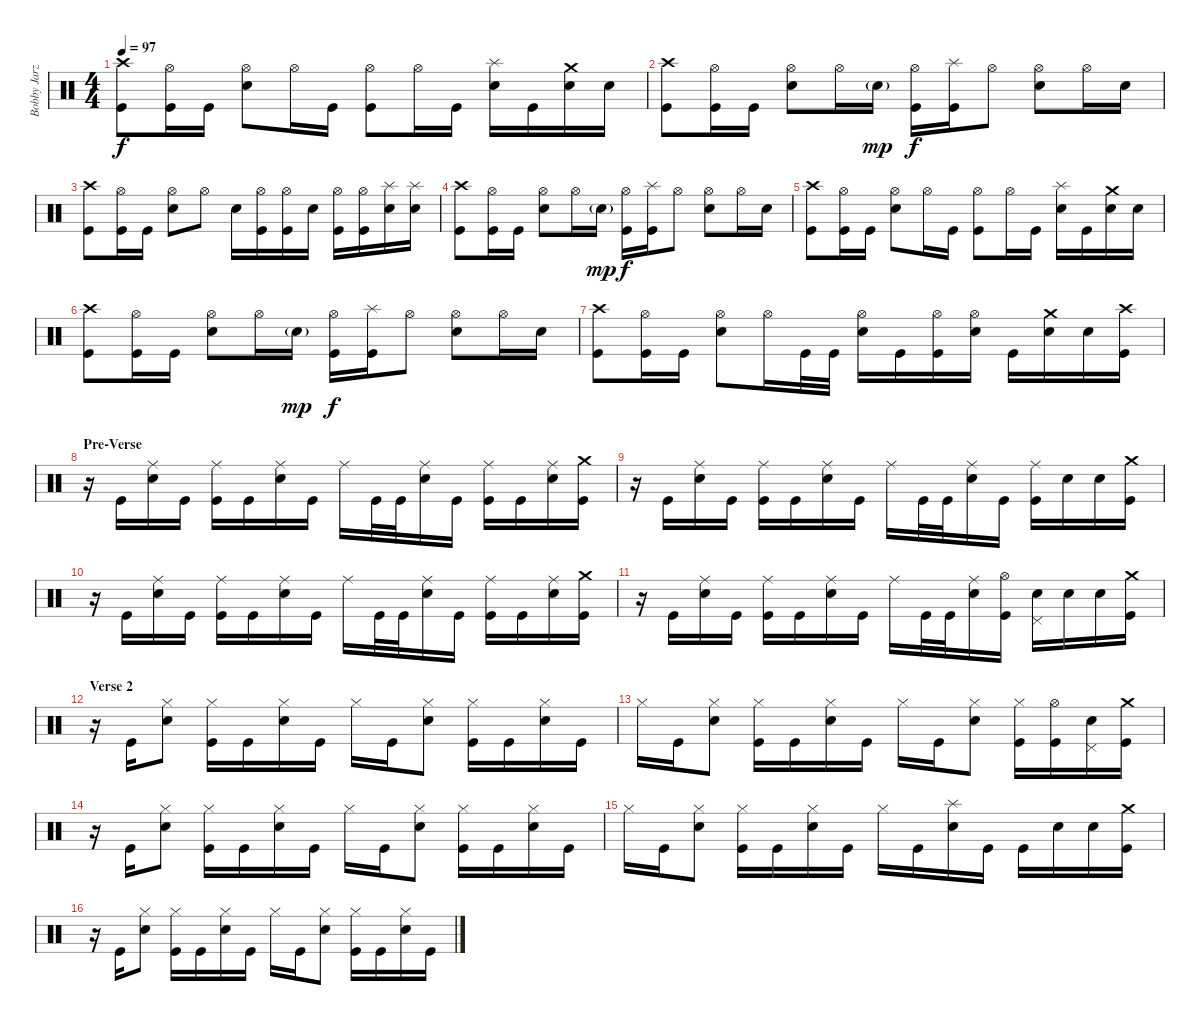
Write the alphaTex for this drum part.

\track ("Bobby Jarzombek" "Bobby Jarz") {instrument percussion}
\staff {score}
\articulation defaults
\ts (4 4)
\tempo 97
\clef neutral
\ks c
("Crash high (hit)" "Kick (hit)").8{dy f} ("Hi-Hat (open)" "Kick (hit)").16 "Kick (hit)".16 ("Hi-Hat (open)" "Electric Snare (hit)").8 "Hi-Hat (open)".16 "Kick (hit)".16 ("Hi-Hat (open)" "Kick (hit)").8 "Hi-Hat (open)".16 "Kick (hit)".16 ("Splash (hit)" "Electric Snare (hit)").16 "Kick (hit)".16 ("Crash medium (hit)" "Electric Snare (hit)").16 "Electric Snare (hit)".16 |
("Crash high (hit)" "Kick (hit)").8 ("Hi-Hat (open)" "Kick (hit)").16 "Kick (hit)".16 ("Hi-Hat (open)" "Electric Snare (hit)").8 "Hi-Hat (open)".16 "Electric Snare (hit)"{g}.16{dy mp} ("Hi-Hat (open)" "Kick (hit)").16{dy f} ("Splash (hit)" "Kick (hit)").16 "Hi-Hat (open)".8 ("Hi-Hat (open)" "Electric Snare (hit)").8 "Hi-Hat (open)".16 "Electric Snare (hit)".16 |
("Crash high (hit)" "Kick (hit)").8 ("Hi-Hat (open)" "Kick (hit)").16 "Kick (hit)".16 ("Hi-Hat (open)" "Electric Snare (hit)").8 "Hi-Hat (open)".8 "Electric Snare (hit)".16 ("Hi-Hat (open)" "Kick (hit)").16 ("Hi-Hat (open)" "Kick (hit)").16 "Electric Snare (hit)".16 ("Hi-Hat (open)" "Kick (hit)").16 ("Hi-Hat (open)" "Kick (hit)").16 ("Splash (hit)" "Electric Snare (hit)").16 ("Splash (hit)" "Electric Snare (hit)").16 |
("Crash high (hit)" "Kick (hit)").8 ("Hi-Hat (open)" "Kick (hit)").16 "Kick (hit)".16 ("Hi-Hat (open)" "Electric Snare (hit)").8 "Hi-Hat (open)".16 "Electric Snare (hit)"{g}.16{dy mp} ("Hi-Hat (open)" "Kick (hit)").16{dy f} ("Splash (hit)" "Kick (hit)").16 "Hi-Hat (open)".8 ("Hi-Hat (open)" "Electric Snare (hit)").8 "Hi-Hat (open)".16 "Electric Snare (hit)".16 |
("Crash high (hit)" "Kick (hit)").8 ("Hi-Hat (open)" "Kick (hit)").16 "Kick (hit)".16 ("Hi-Hat (open)" "Electric Snare (hit)").8 "Hi-Hat (open)".16 "Kick (hit)".16 ("Hi-Hat (open)" "Kick (hit)").8 "Hi-Hat (open)".16 "Kick (hit)".16 ("Splash (hit)" "Electric Snare (hit)").16 "Kick (hit)".16 ("Crash medium (hit)" "Electric Snare (hit)").16 "Electric Snare (hit)".16 |
("Crash high (hit)" "Kick (hit)").8 ("Hi-Hat (open)" "Kick (hit)").16 "Kick (hit)".16 ("Hi-Hat (open)" "Electric Snare (hit)").8 "Hi-Hat (open)".16 "Electric Snare (hit)"{g}.16{dy mp} ("Hi-Hat (open)" "Kick (hit)").16{dy f} ("Splash (hit)" "Kick (hit)").16 "Hi-Hat (open)".8 ("Hi-Hat (open)" "Electric Snare (hit)").8 "Hi-Hat (open)".16 "Electric Snare (hit)".16 |
("Crash high (hit)" "Kick (hit)").8 ("Hi-Hat (open)" "Kick (hit)").16 "Kick (hit)".16 ("Hi-Hat (open)" "Electric Snare (hit)").8 "Hi-Hat (open)".16 "Kick (hit)".32 "Kick (hit)".32 ("Hi-Hat (open)" "Electric Snare (hit)").16 "Kick (hit)".16 ("Hi-Hat (open)" "Kick (hit)").16 ("Hi-Hat (open)" "Electric Snare (hit)").16 "Kick (hit)".16 ("Crash medium (hit)" "Electric Snare (hit)").16 "Electric Snare (hit)".16 ("Crash high (hit)" "Kick (hit)").16 |
\section ("" "Pre-Verse")
r.16 "Kick (hit)".16 ("Ride (middle)" "Electric Snare (hit)").16 "Kick (hit)".16 ("Ride (middle)" "Kick (hit)").16 "Kick (hit)".16 ("Ride (middle)" "Electric Snare (hit)").16 "Kick (hit)".16 "Ride (middle)".16 "Kick (hit)".32 "Kick (hit)".32 ("Ride (middle)" "Electric Snare (hit)").16 "Kick (hit)".16 ("Ride (middle)" "Kick (hit)").16 "Kick (hit)".16 ("Ride (middle)" "Electric Snare (hit)").16 ("Crash medium (hit)" "Kick (hit)").16 |
r.16 "Kick (hit)".16 ("Ride (middle)" "Electric Snare (hit)").16 "Kick (hit)".16 ("Ride (middle)" "Kick (hit)").16 "Kick (hit)".16 ("Ride (middle)" "Electric Snare (hit)").16 "Kick (hit)".16 "Ride (middle)".16 "Kick (hit)".32 "Kick (hit)".32 ("Ride (middle)" "Electric Snare (hit)").16 "Kick (hit)".16 ("Ride (middle)" "Kick (hit)").16 "Electric Snare (hit)".16 "Electric Snare (hit)".16 ("Crash medium (hit)" "Kick (hit)").16 |
r.16 "Kick (hit)".16 ("Ride (middle)" "Electric Snare (hit)").16 "Kick (hit)".16 ("Ride (middle)" "Kick (hit)").16 "Kick (hit)".16 ("Ride (middle)" "Electric Snare (hit)").16 "Kick (hit)".16 "Ride (middle)".16 "Kick (hit)".32 "Kick (hit)".32 ("Ride (middle)" "Electric Snare (hit)").16 "Kick (hit)".16 ("Ride (middle)" "Kick (hit)").16 "Kick (hit)".16 ("Ride (middle)" "Electric Snare (hit)").16 ("Crash medium (hit)" "Kick (hit)").16 |
r.16 "Kick (hit)".16 ("Ride (middle)" "Electric Snare (hit)").16 "Kick (hit)".16 ("Ride (middle)" "Kick (hit)").16 "Kick (hit)".16 ("Ride (middle)" "Electric Snare (hit)").16 "Kick (hit)".16 "Ride (middle)".16 "Kick (hit)".32 "Kick (hit)".32 ("Ride (middle)" "Electric Snare (hit)").16 ("Hi-Hat (open)" "Kick (hit)").16 ("Electric Snare (hit)" "Pedal Hi-Hat (hit)").16 "Electric Snare (hit)".16 "Electric Snare (hit)".16 ("Crash medium (hit)" "Kick (hit)").16 |
\section ("" "Verse 2")
r.16 "Kick (hit)".16 ("Hi-Hat (closed)" "Electric Snare (hit)").8 ("Hi-Hat (closed)" "Kick (hit)").16 "Kick (hit)".16 ("Hi-Hat (closed)" "Electric Snare (hit)").16 "Kick (hit)".16 "Hi-Hat (closed)".16 "Kick (hit)".16 ("Hi-Hat (closed)" "Electric Snare (hit)").8 ("Hi-Hat (closed)" "Kick (hit)").16 "Kick (hit)".16 ("Hi-Hat (closed)" "Electric Snare (hit)").16 "Kick (hit)".16 |
"Hi-Hat (closed)".16 "Kick (hit)".16 ("Hi-Hat (closed)" "Electric Snare (hit)").8 ("Hi-Hat (closed)" "Kick (hit)").16 "Kick (hit)".16 ("Hi-Hat (closed)" "Electric Snare (hit)").16 "Kick (hit)".16 "Hi-Hat (closed)".16 "Kick (hit)".16 ("Hi-Hat (closed)" "Electric Snare (hit)").8 ("Hi-Hat (closed)" "Kick (hit)").16 ("Hi-Hat (open)" "Kick (hit)").16 ("Electric Snare (hit)" "Pedal Hi-Hat (hit)").16 ("Crash medium (hit)" "Kick (hit)").16 |
r.16 "Kick (hit)".16 ("Hi-Hat (closed)" "Electric Snare (hit)").8 ("Hi-Hat (closed)" "Kick (hit)").16 "Kick (hit)".16 ("Hi-Hat (closed)" "Electric Snare (hit)").16 "Kick (hit)".16 "Hi-Hat (closed)".16 "Kick (hit)".16 ("Hi-Hat (closed)" "Electric Snare (hit)").8 ("Hi-Hat (closed)" "Kick (hit)").16 "Kick (hit)".16 ("Hi-Hat (closed)" "Electric Snare (hit)").16 "Kick (hit)".16 |
"Hi-Hat (closed)".16 "Kick (hit)".16 ("Hi-Hat (closed)" "Electric Snare (hit)").8 ("Hi-Hat (closed)" "Kick (hit)").16 "Kick (hit)".16 ("Hi-Hat (closed)" "Electric Snare (hit)").16 "Kick (hit)".16 "Hi-Hat (closed)".16 "Kick (hit)".16 ("Splash (hit)" "Electric Snare (hit)").16 "Kick (hit)".16 "Kick (hit)".16 "Electric Snare (hit)".16 "Electric Snare (hit)".16 ("Crash medium (hit)" "Kick (hit)").16 |
r.16 "Kick (hit)".16 ("Hi-Hat (closed)" "Electric Snare (hit)").8 ("Hi-Hat (closed)" "Kick (hit)").16 "Kick (hit)".16 ("Hi-Hat (closed)" "Electric Snare (hit)").16 "Kick (hit)".16 "Hi-Hat (closed)".16 "Kick (hit)".16 ("Hi-Hat (closed)" "Electric Snare (hit)").8 ("Hi-Hat (closed)" "Kick (hit)").16 "Kick (hit)".16 ("Hi-Hat (closed)" "Electric Snare (hit)").16 "Kick (hit)".16
